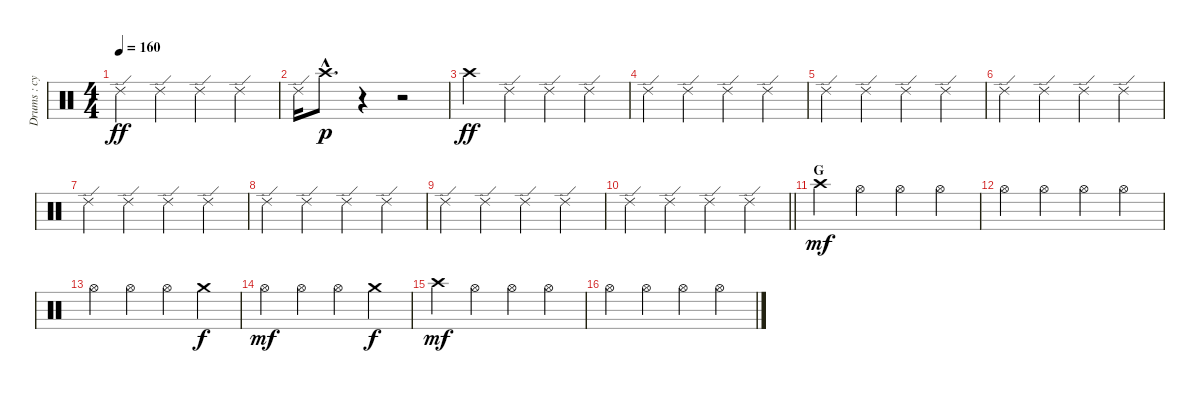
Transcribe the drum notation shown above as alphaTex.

\track ("Drums : cymbals" "Drums : cy") {instrument percussion}
\staff {score}
\articulation defaults
\ts (4 4)
\tempo 160
\clef neutral
\ks c "Ride (edge) 2".4{dy ff} "Ride (edge) 2".4 "Ride (edge) 2".4 "Ride (edge) 2".4
|
"Ride (edge) 2".16 "Crash high (hit)"{hac}.8{d dy p} r.4 r.2 |
"Crash high (hit)".4{dy ff} "Ride (edge) 2".4 "Ride (edge) 2".4 "Ride (edge) 2".4 |
"Ride (edge) 2".4 "Ride (edge) 2".4 "Ride (edge) 2".4 "Ride (edge) 2".4 |
"Ride (edge) 2".4 "Ride (edge) 2".4 "Ride (edge) 2".4 "Ride (edge) 2".4 |
"Ride (edge) 2".4 "Ride (edge) 2".4 "Ride (edge) 2".4 "Ride (edge) 2".4 |
"Ride (edge) 2".4 "Ride (edge) 2".4 "Ride (edge) 2".4 "Ride (edge) 2".4 |
"Ride (edge) 2".4 "Ride (edge) 2".4 "Ride (edge) 2".4 "Ride (edge) 2".4 |
"Ride (edge) 2".4 "Ride (edge) 2".4 "Ride (edge) 2".4 "Ride (edge) 2".4 |
\barLineRight lightlight "Ride (edge) 2".4 "Ride (edge) 2".4 "Ride (edge) 2".4 "Ride (edge) 2".4
|
\section ("" "G")
"Crash high (hit)".4{dy mf} "Hi-Hat (open)".4 "Hi-Hat (open)".4 "Hi-Hat (open)".4 |
"Hi-Hat (open)".4 "Hi-Hat (open)".4 "Hi-Hat (open)".4 "Hi-Hat (open)".4 |
"Hi-Hat (open)".4 "Hi-Hat (open)".4 "Hi-Hat (open)".4 "Crash medium (hit)".4{dy f} |
"Hi-Hat (open)".4{dy mf} "Hi-Hat (open)".4 "Hi-Hat (open)".4 "Crash medium (hit)".4{dy f} |
"Crash high (hit)".4{dy mf} "Hi-Hat (open)".4 "Hi-Hat (open)".4 "Hi-Hat (open)".4 |
"Hi-Hat (open)".4 "Hi-Hat (open)".4 "Hi-Hat (open)".4 "Hi-Hat (open)".4
